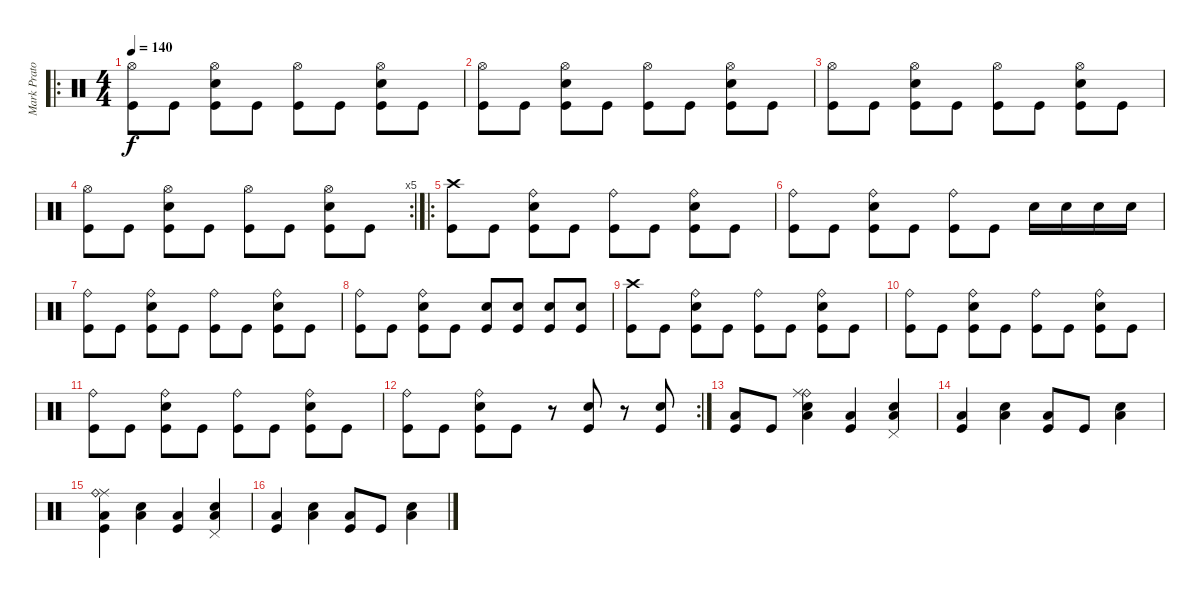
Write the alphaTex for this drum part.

\track ("Mark Prator" "Mark Prato") {instrument percussion}
\staff {score}
\articulation defaults
\ro
\ts (4 4)
\tempo 140
\clef neutral
\ks c
("Hi-Hat (open)" "Kick (hit)").8{dy f} "Kick (hit)".8 ("Hi-Hat (open)" "Snare (hit) 2" "Kick (hit)").8 "Kick (hit)".8 ("Hi-Hat (open)" "Kick (hit)").8 "Kick (hit)".8 ("Hi-Hat (open)" "Snare (hit) 2" "Kick (hit)").8 "Kick (hit)".8 |
("Hi-Hat (open)" "Kick (hit)").8 "Kick (hit)".8 ("Hi-Hat (open)" "Snare (hit) 2" "Kick (hit)").8 "Kick (hit)".8 ("Hi-Hat (open)" "Kick (hit)").8 "Kick (hit)".8 ("Hi-Hat (open)" "Snare (hit) 2" "Kick (hit)").8 "Kick (hit)".8 |
("Hi-Hat (open)" "Kick (hit)").8 "Kick (hit)".8 ("Hi-Hat (open)" "Snare (hit) 2" "Kick (hit)").8 "Kick (hit)".8 ("Hi-Hat (open)" "Kick (hit)").8 "Kick (hit)".8 ("Hi-Hat (open)" "Snare (hit) 2" "Kick (hit)").8 "Kick (hit)".8 |
\rc 5
("Hi-Hat (open)" "Kick (hit)").8 "Kick (hit)".8 ("Hi-Hat (open)" "Snare (hit) 2" "Kick (hit)").8 "Kick (hit)".8 ("Hi-Hat (open)" "Kick (hit)").8 "Kick (hit)".8 ("Hi-Hat (open)" "Snare (hit) 2" "Kick (hit)").8 "Kick (hit)".8 |
\ro
("Crash high (hit)" "Kick (hit)").8 "Kick (hit)".8 ("Ride (bell)" "Snare (hit) 2" "Kick (hit)").8 "Kick (hit)".8 ("Ride (bell)" "Kick (hit)").8 "Kick (hit)".8 ("Ride (bell)" "Snare (hit) 2" "Kick (hit)").8 "Kick (hit)".8 |
("Ride (bell)" "Kick (hit)").8 "Kick (hit)".8 ("Ride (bell)" "Snare (hit) 2" "Kick (hit)").8 "Kick (hit)".8 ("Ride (bell)" "Kick (hit)").8 "Kick (hit)".8 "Snare (hit) 2".16 "Snare (hit) 2".16 "Snare (hit) 2".16 "Snare (hit) 2".16 |
("Ride (bell)" "Kick (hit)").8 "Kick (hit)".8 ("Ride (bell)" "Snare (hit) 2" "Kick (hit)").8 "Kick (hit)".8 ("Ride (bell)" "Kick (hit)").8 "Kick (hit)".8 ("Ride (bell)" "Snare (hit) 2" "Kick (hit)").8 "Kick (hit)".8 |
("Ride (bell)" "Kick (hit)").8 "Kick (hit)".8 ("Ride (bell)" "Snare (hit) 2" "Kick (hit)").8 "Kick (hit)".8 ("Snare (hit) 2" "Kick (hit)").8 ("Snare (hit) 2" "Kick (hit)").8 ("Snare (hit) 2" "Kick (hit)").8 ("Snare (hit) 2" "Kick (hit)").8 |
("Crash high (hit)" "Kick (hit)").8 "Kick (hit)".8 ("Ride (bell)" "Snare (hit) 2" "Kick (hit)").8 "Kick (hit)".8 ("Ride (bell)" "Kick (hit)").8 "Kick (hit)".8 ("Ride (bell)" "Snare (hit) 2" "Kick (hit)").8 "Kick (hit)".8 |
("Ride (bell)" "Kick (hit)").8 "Kick (hit)".8 ("Ride (bell)" "Snare (hit) 2" "Kick (hit)").8 "Kick (hit)".8 ("Ride (bell)" "Kick (hit)").8 "Kick (hit)".8 ("Ride (bell)" "Snare (hit) 2" "Kick (hit)").8 "Kick (hit)".8 |
("Ride (bell)" "Kick (hit)").8 "Kick (hit)".8 ("Ride (bell)" "Snare (hit) 2" "Kick (hit)").8 "Kick (hit)".8 ("Ride (bell)" "Kick (hit)").8 "Kick (hit)".8 ("Ride (bell)" "Snare (hit) 2" "Kick (hit)").8 "Kick (hit)".8 |
\rc 2
("Ride (bell)" "Kick (hit)").8 "Kick (hit)".8 ("Ride (bell)" "Snare (hit) 2" "Kick (hit)").8 "Kick (hit)".8 r.8 ("Snare (hit) 2" "Kick (hit)").8 r.8 ("Snare (hit) 2" "Kick (hit)").8 |
("Low Floor Tom (hit)" "Kick (hit)").8 "Kick (hit)".8 ("Low Floor Tom (hit)" "Ride (bell)" "Ride (middle)" "Snare (hit) 2").4 ("Low Floor Tom (hit)" "Kick (hit)").4 ("Low Floor Tom (hit)" "Snare (hit) 2" "Pedal Hi-Hat (hit)").4 |
("Low Floor Tom (hit)" "Kick (hit)").4 ("Low Floor Tom (hit)" "Snare (hit) 2").4 ("Low Floor Tom (hit)" "Kick (hit)").8 "Kick (hit)".8 ("Low Floor Tom (hit)" "Snare (hit) 2").4 |
("Ride (middle)" "Ride (bell)" "Low Floor Tom (hit)" "Kick (hit)").4 ("Low Floor Tom (hit)" "Snare (hit) 2").4 ("Low Floor Tom (hit)" "Kick (hit)").4 ("Low Floor Tom (hit)" "Snare (hit) 2" "Pedal Hi-Hat (hit)").4 |
("Low Floor Tom (hit)" "Kick (hit)").4 ("Low Floor Tom (hit)" "Snare (hit) 2").4 ("Low Floor Tom (hit)" "Kick (hit)").8 "Kick (hit)".8 ("Low Floor Tom (hit)" "Snare (hit) 2").4
